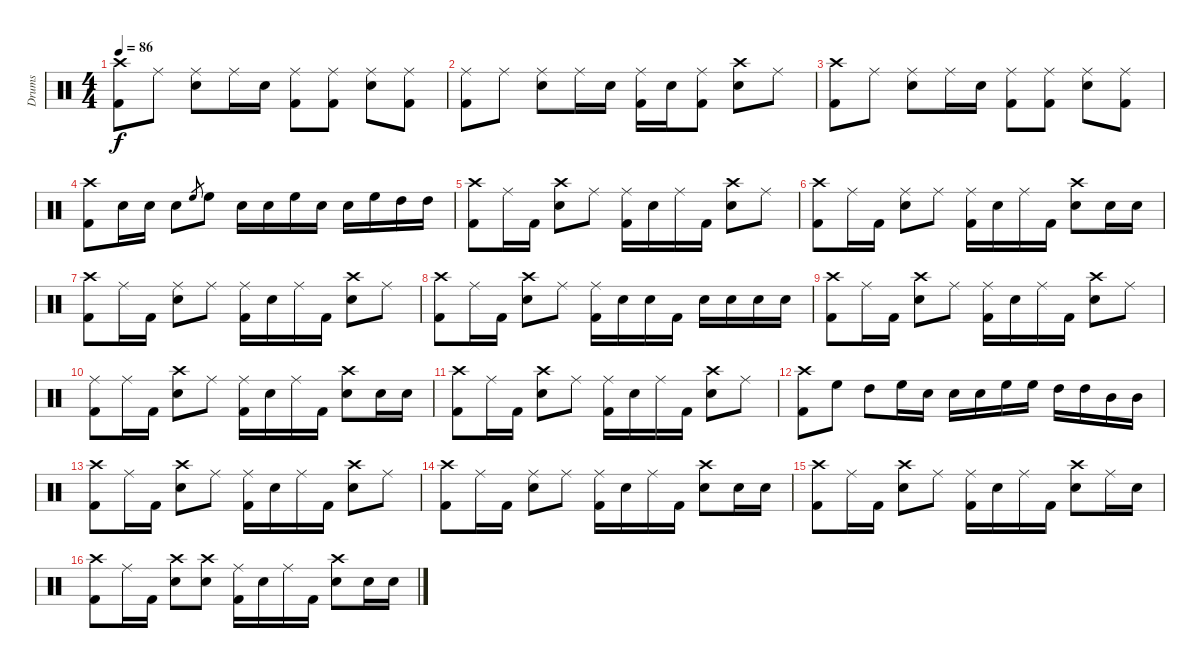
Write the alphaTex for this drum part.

\track ("Drums" "Drums") {instrument percussion}
\staff {score}
\articulation defaults
\ts (4 4)
\tempo 86
\clef neutral
\ks c
("Crash high (hit)" "Kick (hit) 2").8{dy f} "Ride (middle)".8 ("Ride (middle)" "Snare (hit) 2").8 "Ride (middle)".16 "Snare (hit) 2".16 ("Ride (middle)" "Kick (hit) 2").8 ("Ride (middle)" "Kick (hit) 2").8 ("Ride (middle)" "Snare (hit) 2").8 ("Ride (middle)" "Kick (hit) 2").8 |
("Ride (middle)" "Kick (hit) 2").8 "Ride (middle)".8 ("Ride (middle)" "Snare (hit) 2").8 "Ride (middle)".16 "Snare (hit) 2".16 ("Ride (middle)" "Kick (hit) 2").16 "Snare (hit) 2".16 ("Ride (middle)" "Kick (hit) 2").8 ("Crash high (hit)" "Snare (hit) 2").8 "Ride (middle)".8 |
("Crash high (hit)" "Kick (hit) 2").8 "Ride (middle)".8 ("Ride (middle)" "Snare (hit) 2").8 "Ride (middle)".16 "Snare (hit) 2".16 ("Ride (middle)" "Kick (hit) 2").8 ("Ride (middle)" "Kick (hit) 2").8 ("Ride (middle)" "Snare (hit) 2").8 ("Ride (middle)" "Kick (hit) 2").8 |
("Crash high (hit)" "Kick (hit) 2").8 "Snare (hit) 2".16 "Snare (hit) 2".16 "Snare (hit) 2".8 "High Floor Tom (hit)".8{gr} "High Floor Tom (hit)".8 "Snare (hit) 2".16 "Snare (hit) 2".16 "High Floor Tom (hit)".16 "Snare (hit) 2".16 "Snare (hit) 2".16 "High Floor Tom (hit)".16 "High Tom (hit)".16 "High Tom (hit)".16 |
("Crash high (hit)" "Kick (hit) 2").8 "Ride (middle)".16 "Kick (hit) 2".16 ("Crash high (hit)" "Snare (hit) 2").8 "Ride (middle)".8 ("Ride (middle)" "Kick (hit) 2").16 "Snare (hit) 2".16 "Ride (middle)".16 "Kick (hit) 2".16 ("Crash high (hit)" "Snare (hit) 2").8 "Ride (middle)".8 |
("Crash high (hit)" "Kick (hit) 2").8 "Ride (middle)".16 "Kick (hit) 2".16 ("Ride (middle)" "Snare (hit) 2").8 "Ride (middle)".8 ("Ride (middle)" "Kick (hit) 2").16 "Snare (hit) 2".16 "Ride (middle)".16 "Kick (hit) 2".16 ("Crash high (hit)" "Snare (hit) 2").8 "Snare (hit) 2".16 "Snare (hit) 2".16 |
("Crash high (hit)" "Kick (hit) 2").8 "Ride (middle)".16 "Kick (hit) 2".16 ("Ride (middle)" "Snare (hit) 2").8 "Ride (middle)".8 ("Ride (middle)" "Kick (hit) 2").16 "Snare (hit) 2".16 "Ride (middle)".16 "Kick (hit) 2".16 ("Crash high (hit)" "Snare (hit) 2").8 "Ride (middle)".8 |
("Crash high (hit)" "Kick (hit) 2").8 "Ride (middle)".16 "Kick (hit) 2".16 ("Crash high (hit)" "Snare (hit) 2").8 "Ride (middle)".8 ("Ride (middle)" "Kick (hit) 2").16 "Snare (hit) 2".16 "Snare (hit) 2".16 "Kick (hit) 2".16 "Snare (hit) 2".16 "Snare (hit) 2".16 "Snare (hit) 2".16 "Snare (hit) 2".16 |
("Crash high (hit)" "Kick (hit) 2").8 "Ride (middle)".16 "Kick (hit) 2".16 ("Crash high (hit)" "Snare (hit) 2").8 "Ride (middle)".8 ("Ride (middle)" "Kick (hit) 2").16 "Snare (hit) 2".16 "Ride (middle)".16 "Kick (hit) 2".16 ("Crash high (hit)" "Snare (hit) 2").8 "Ride (middle)".8 |
("Ride (middle)" "Kick (hit) 2").8 "Ride (middle)".16 "Kick (hit) 2".16 ("Crash high (hit)" "Snare (hit) 2").8 "Ride (middle)".8 ("Ride (middle)" "Kick (hit) 2").16 "Snare (hit) 2".16 "Ride (middle)".16 "Kick (hit) 2".16 ("Crash high (hit)" "Snare (hit) 2").8 "Snare (hit) 2".16 "Snare (hit) 2".16 |
("Crash high (hit)" "Kick (hit) 2").8 "Ride (middle)".16 "Kick (hit) 2".16 ("Crash high (hit)" "Snare (hit) 2").8 "Ride (middle)".8 ("Ride (middle)" "Kick (hit) 2").16 "Snare (hit) 2".16 "Ride (middle)".16 "Kick (hit) 2".16 ("Crash high (hit)" "Snare (hit) 2").8 "Ride (middle)".8 |
("Crash high (hit)" "Kick (hit) 2").8 "High Floor Tom (hit)".8 "High Tom (hit)".8 "High Floor Tom (hit)".16 "Snare (hit) 2".16 "Snare (hit) 2".16 "Snare (hit) 2".16 "High Floor Tom (hit)".16 "High Floor Tom (hit)".16 "High Tom (hit)".16 "High Tom (hit)".16 "Mid Tom (hit)".16 "Mid Tom (hit)".16 |
("Crash high (hit)" "Kick (hit) 2").8 "Ride (middle)".16 "Kick (hit) 2".16 ("Crash high (hit)" "Snare (hit) 2").8 "Ride (middle)".8 ("Ride (middle)" "Kick (hit) 2").16 "Snare (hit) 2".16 "Ride (middle)".16 "Kick (hit) 2".16 ("Crash high (hit)" "Snare (hit) 2").8 "Ride (middle)".8 |
("Crash high (hit)" "Kick (hit) 2").8 "Ride (middle)".16 "Kick (hit) 2".16 ("Ride (middle)" "Snare (hit) 2").8 "Ride (middle)".8 ("Ride (middle)" "Kick (hit) 2").16 "Snare (hit) 2".16 "Ride (middle)".16 "Kick (hit) 2".16 ("Crash high (hit)" "Snare (hit) 2").8 "Snare (hit) 2".16 "Snare (hit) 2".16 |
("Crash high (hit)" "Kick (hit) 2").8 "Ride (middle)".16 "Kick (hit) 2".16 ("Crash high (hit)" "Snare (hit) 2").8 "Ride (middle)".8 ("Ride (middle)" "Kick (hit) 2").16 "Snare (hit) 2".16 "Ride (middle)".16 "Kick (hit) 2".16 ("Crash high (hit)" "Snare (hit) 2").8 "Ride (middle)".16 "Snare (hit) 2".16 |
("Crash high (hit)" "Kick (hit) 2").8 "Ride (middle)".16 "Kick (hit) 2".16 ("Crash high (hit)" "Snare (hit) 2").8 ("Crash high (hit)" "Snare (hit) 2").8 ("Ride (middle)" "Kick (hit) 2").16 "Snare (hit) 2".16 "Ride (middle)".16 "Kick (hit) 2".16 ("Crash high (hit)" "Snare (hit) 2").8 "Snare (hit) 2".16 "Snare (hit) 2".16
